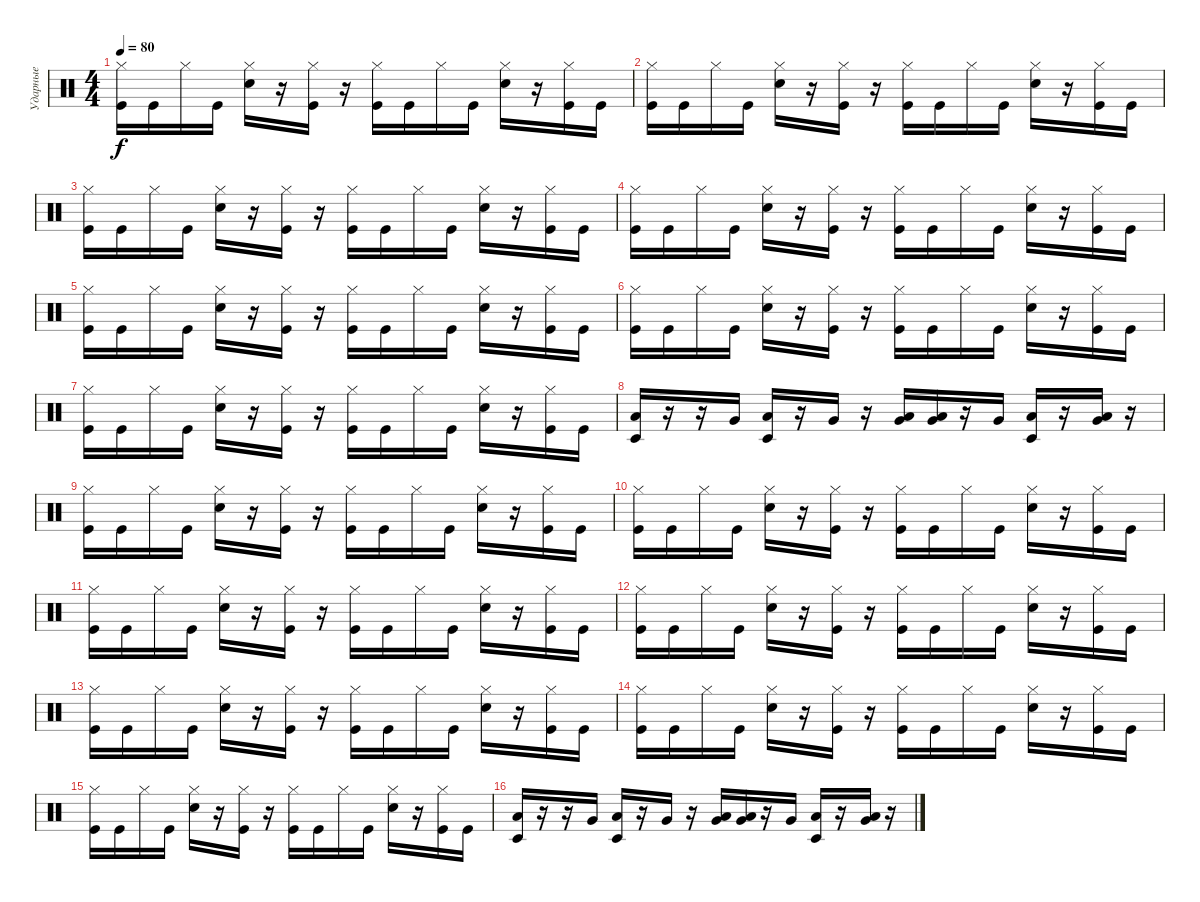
\track ("Ударные" "Ударные") {instrument percussion}
\staff {score}
\articulation defaults
\ts (4 4)
\tempo 80
\clef neutral
\ks c
("Hi-Hat (closed)" "Kick (hit)").16{dy f} "Kick (hit)".16 "Hi-Hat (closed)".16 "Kick (hit)".16 ("Hi-Hat (closed)" "Electric Snare (hit)").16 r.16 ("Hi-Hat (closed)" "Kick (hit)").16 r.16 ("Hi-Hat (closed)" "Kick (hit)").16 "Kick (hit)".16 "Hi-Hat (closed)".16 "Kick (hit)".16 ("Hi-Hat (closed)" "Electric Snare (hit)").16 r.16 ("Hi-Hat (closed)" "Kick (hit)").16 "Kick (hit)".16 |
("Hi-Hat (closed)" "Kick (hit)").16 "Kick (hit)".16 "Hi-Hat (closed)".16 "Kick (hit)".16 ("Hi-Hat (closed)" "Electric Snare (hit)").16 r.16 ("Hi-Hat (closed)" "Kick (hit)").16 r.16 ("Hi-Hat (closed)" "Kick (hit)").16 "Kick (hit)".16 "Hi-Hat (closed)".16 "Kick (hit)".16 ("Hi-Hat (closed)" "Electric Snare (hit)").16 r.16 ("Hi-Hat (closed)" "Kick (hit)").16 "Kick (hit)".16 |
("Hi-Hat (closed)" "Kick (hit)").16 "Kick (hit)".16 "Hi-Hat (closed)".16 "Kick (hit)".16 ("Hi-Hat (closed)" "Electric Snare (hit)").16 r.16 ("Hi-Hat (closed)" "Kick (hit)").16 r.16 ("Hi-Hat (closed)" "Kick (hit)").16 "Kick (hit)".16 "Hi-Hat (closed)".16 "Kick (hit)".16 ("Hi-Hat (closed)" "Electric Snare (hit)").16 r.16 ("Hi-Hat (closed)" "Kick (hit)").16 "Kick (hit)".16 |
("Hi-Hat (closed)" "Kick (hit)").16 "Kick (hit)".16 "Hi-Hat (closed)".16 "Kick (hit)".16 ("Hi-Hat (closed)" "Electric Snare (hit)").16 r.16 ("Hi-Hat (closed)" "Kick (hit)").16 r.16 ("Hi-Hat (closed)" "Kick (hit)").16 "Kick (hit)".16 "Hi-Hat (closed)".16 "Kick (hit)".16 ("Hi-Hat (closed)" "Electric Snare (hit)").16 r.16 ("Hi-Hat (closed)" "Kick (hit)").16 "Kick (hit)".16 |
("Hi-Hat (closed)" "Kick (hit)").16 "Kick (hit)".16 "Hi-Hat (closed)".16 "Kick (hit)".16 ("Hi-Hat (closed)" "Electric Snare (hit)").16 r.16 ("Hi-Hat (closed)" "Kick (hit)").16 r.16 ("Hi-Hat (closed)" "Kick (hit)").16 "Kick (hit)".16 "Hi-Hat (closed)".16 "Kick (hit)".16 ("Hi-Hat (closed)" "Electric Snare (hit)").16 r.16 ("Hi-Hat (closed)" "Kick (hit)").16 "Kick (hit)".16 |
("Hi-Hat (closed)" "Kick (hit)").16 "Kick (hit)".16 "Hi-Hat (closed)".16 "Kick (hit)".16 ("Hi-Hat (closed)" "Electric Snare (hit)").16 r.16 ("Hi-Hat (closed)" "Kick (hit)").16 r.16 ("Hi-Hat (closed)" "Kick (hit)").16 "Kick (hit)".16 "Hi-Hat (closed)".16 "Kick (hit)".16 ("Hi-Hat (closed)" "Electric Snare (hit)").16 r.16 ("Hi-Hat (closed)" "Kick (hit)").16 "Kick (hit)".16 |
("Hi-Hat (closed)" "Kick (hit)").16 "Kick (hit)".16 "Hi-Hat (closed)".16 "Kick (hit)".16 ("Hi-Hat (closed)" "Electric Snare (hit)").16 r.16 ("Hi-Hat (closed)" "Kick (hit)").16 r.16 ("Hi-Hat (closed)" "Kick (hit)").16 "Kick (hit)".16 "Hi-Hat (closed)".16 "Kick (hit)".16 ("Hi-Hat (closed)" "Electric Snare (hit)").16 r.16 ("Hi-Hat (closed)" "Kick (hit)").16 "Kick (hit)".16 |
("Timbale low (hit)" "Low Floor Tom (hit)").16 r.16 r.16 "Very Low Tom (hit)".16 ("Timbale low (hit)" "Low Floor Tom (hit)").16 r.16 "Very Low Tom (hit)".16 r.16 ("Low Floor Tom (hit)" "Very Low Tom (hit)").16 ("Low Floor Tom (hit)" "Very Low Tom (hit)").16 r.16 "Very Low Tom (hit)".16 ("Timbale low (hit)" "Low Floor Tom (hit)").16 r.16 ("Low Floor Tom (hit)" "Very Low Tom (hit)").16 r.16 |
("Hi-Hat (closed)" "Kick (hit)").16 "Kick (hit)".16 "Hi-Hat (closed)".16 "Kick (hit)".16 ("Hi-Hat (closed)" "Electric Snare (hit)").16 r.16 ("Hi-Hat (closed)" "Kick (hit)").16 r.16 ("Hi-Hat (closed)" "Kick (hit)").16 "Kick (hit)".16 "Hi-Hat (closed)".16 "Kick (hit)".16 ("Hi-Hat (closed)" "Electric Snare (hit)").16 r.16 ("Hi-Hat (closed)" "Kick (hit)").16 "Kick (hit)".16 |
("Hi-Hat (closed)" "Kick (hit)").16 "Kick (hit)".16 "Hi-Hat (closed)".16 "Kick (hit)".16 ("Hi-Hat (closed)" "Electric Snare (hit)").16 r.16 ("Hi-Hat (closed)" "Kick (hit)").16 r.16 ("Hi-Hat (closed)" "Kick (hit)").16 "Kick (hit)".16 "Hi-Hat (closed)".16 "Kick (hit)".16 ("Hi-Hat (closed)" "Electric Snare (hit)").16 r.16 ("Hi-Hat (closed)" "Kick (hit)").16 "Kick (hit)".16 |
("Hi-Hat (closed)" "Kick (hit)").16 "Kick (hit)".16 "Hi-Hat (closed)".16 "Kick (hit)".16 ("Hi-Hat (closed)" "Electric Snare (hit)").16 r.16 ("Hi-Hat (closed)" "Kick (hit)").16 r.16 ("Hi-Hat (closed)" "Kick (hit)").16 "Kick (hit)".16 "Hi-Hat (closed)".16 "Kick (hit)".16 ("Hi-Hat (closed)" "Electric Snare (hit)").16 r.16 ("Hi-Hat (closed)" "Kick (hit)").16 "Kick (hit)".16 |
("Hi-Hat (closed)" "Kick (hit)").16 "Kick (hit)".16 "Hi-Hat (closed)".16 "Kick (hit)".16 ("Hi-Hat (closed)" "Electric Snare (hit)").16 r.16 ("Hi-Hat (closed)" "Kick (hit)").16 r.16 ("Hi-Hat (closed)" "Kick (hit)").16 "Kick (hit)".16 "Hi-Hat (closed)".16 "Kick (hit)".16 ("Hi-Hat (closed)" "Electric Snare (hit)").16 r.16 ("Hi-Hat (closed)" "Kick (hit)").16 "Kick (hit)".16 |
("Hi-Hat (closed)" "Kick (hit)").16 "Kick (hit)".16 "Hi-Hat (closed)".16 "Kick (hit)".16 ("Hi-Hat (closed)" "Electric Snare (hit)").16 r.16 ("Hi-Hat (closed)" "Kick (hit)").16 r.16 ("Hi-Hat (closed)" "Kick (hit)").16 "Kick (hit)".16 "Hi-Hat (closed)".16 "Kick (hit)".16 ("Hi-Hat (closed)" "Electric Snare (hit)").16 r.16 ("Hi-Hat (closed)" "Kick (hit)").16 "Kick (hit)".16 |
("Hi-Hat (closed)" "Kick (hit)").16 "Kick (hit)".16 "Hi-Hat (closed)".16 "Kick (hit)".16 ("Hi-Hat (closed)" "Electric Snare (hit)").16 r.16 ("Hi-Hat (closed)" "Kick (hit)").16 r.16 ("Hi-Hat (closed)" "Kick (hit)").16 "Kick (hit)".16 "Hi-Hat (closed)".16 "Kick (hit)".16 ("Hi-Hat (closed)" "Electric Snare (hit)").16 r.16 ("Hi-Hat (closed)" "Kick (hit)").16 "Kick (hit)".16 |
("Hi-Hat (closed)" "Kick (hit)").16 "Kick (hit)".16 "Hi-Hat (closed)".16 "Kick (hit)".16 ("Hi-Hat (closed)" "Electric Snare (hit)").16 r.16 ("Hi-Hat (closed)" "Kick (hit)").16 r.16 ("Hi-Hat (closed)" "Kick (hit)").16 "Kick (hit)".16 "Hi-Hat (closed)".16 "Kick (hit)".16 ("Hi-Hat (closed)" "Electric Snare (hit)").16 r.16 ("Hi-Hat (closed)" "Kick (hit)").16 "Kick (hit)".16 |
("Timbale low (hit)" "Low Floor Tom (hit)").16 r.16 r.16 "Very Low Tom (hit)".16 ("Timbale low (hit)" "Low Floor Tom (hit)").16 r.16 "Very Low Tom (hit)".16 r.16 ("Low Floor Tom (hit)" "Very Low Tom (hit)").16 ("Low Floor Tom (hit)" "Very Low Tom (hit)").16 r.16 "Very Low Tom (hit)".16 ("Timbale low (hit)" "Low Floor Tom (hit)").16 r.16 ("Low Floor Tom (hit)" "Very Low Tom (hit)").16 r.16
